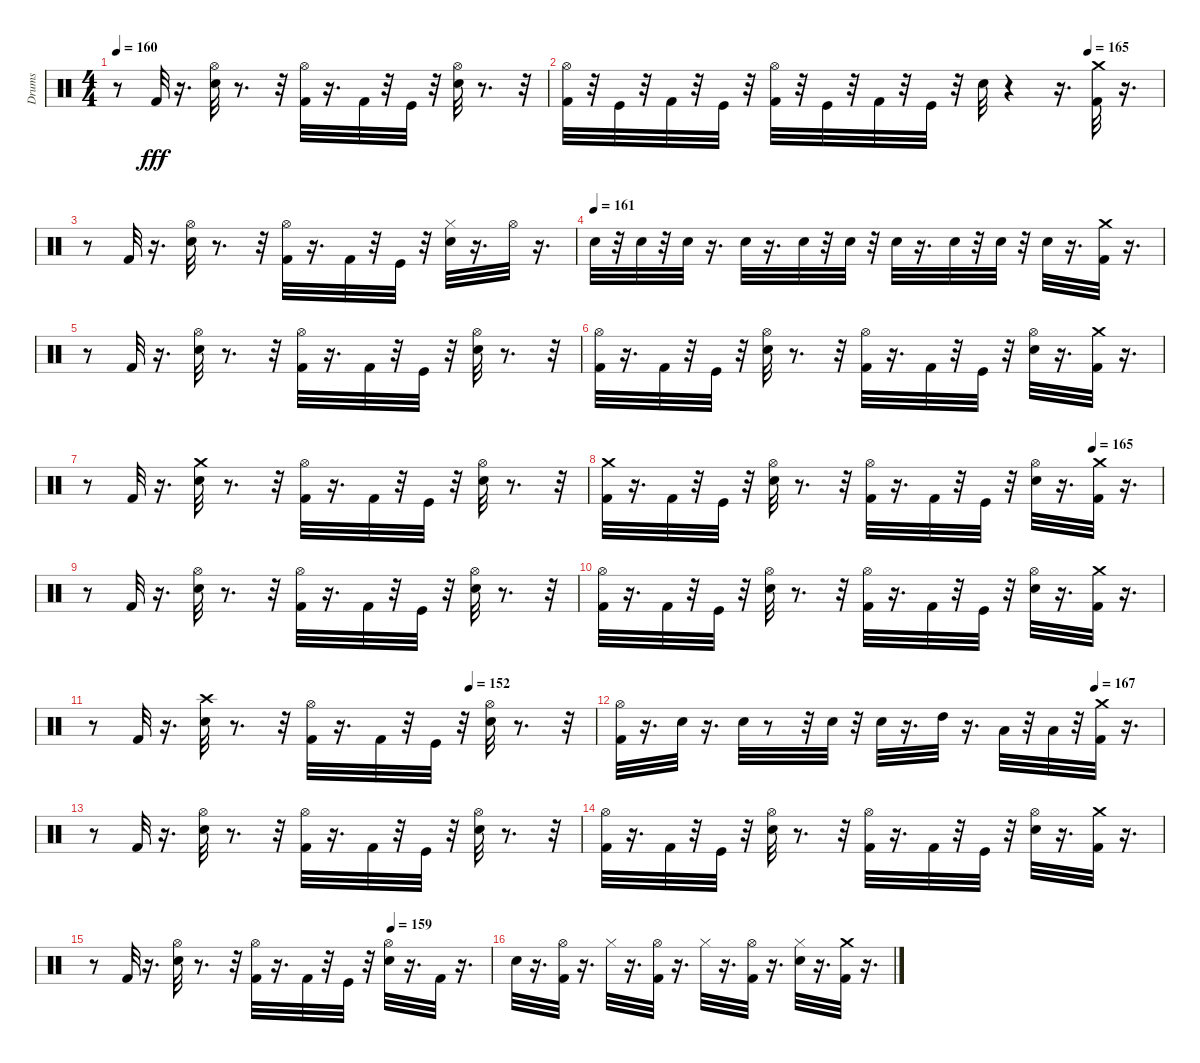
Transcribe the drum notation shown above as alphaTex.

\track ("Drums" "Drums") {instrument percussion}
\staff {score}
\articulation defaults
\ts (4 4)
\tempo 160
\clef neutral
\ks c
r.8{dy fff} "Kick (hit) 2".32 r.16{d} ("Snare (hit) 2" "Hi-Hat (open)").32 r.8{d} r.32 ("Kick (hit) 2" "Hi-Hat (open)").32 r.16{d} "Kick (hit) 2".32 r.32 "Kick (hit)".32 r.32 ("Snare (hit) 2" "Hi-Hat (open)").32 r.8{d} r.32 |
\tempo (165 0.875)
("Kick (hit) 2" "Hi-Hat (open)").32 r.32 "Kick (hit)".32 r.32 "Kick (hit) 2".32 r.32 "Kick (hit)".32 r.32 ("Kick (hit) 2" "Hi-Hat (open)").32 r.32 "Kick (hit)".32 r.32 "Kick (hit) 2".32 r.32 "Kick (hit)".32 r.32 "Snare (hit) 2".32 r.4 r.16{d} ("Crash medium (hit)" "Kick (hit) 2").32 r.16{d} |
r.8 "Kick (hit) 2".32 r.16{d} ("Snare (hit) 2" "Hi-Hat (open)").32 r.8{d} r.32 ("Kick (hit) 2" "Hi-Hat (open)").32 r.16{d} "Kick (hit) 2".32 r.32 "Kick (hit)".32 r.32 ("Snare (hit) 2" "Hi-Hat (closed)").32 r.16{d} "Hi-Hat (open)".32 r.16{d} |
\tempo (161)
"Snare (hit) 2".32 r.32 "Snare (hit) 2".32 r.32 "Snare (hit) 2".32 r.16{d} "Snare (hit) 2".32 r.16{d} "Snare (hit) 2".32 r.32 "Snare (hit) 2".32 r.32 "Snare (hit) 2".32 r.16{d} "Snare (hit) 2".32 r.32 "Snare (hit) 2".32 r.32 "Snare (hit) 2".32 r.16{d} ("Crash medium (hit)" "Kick (hit) 2").32 r.16{d} |
r.8 "Kick (hit) 2".32 r.16{d} ("Snare (hit) 2" "Hi-Hat (open)").32 r.8{d} r.32 ("Kick (hit) 2" "Hi-Hat (open)").32 r.16{d} "Kick (hit) 2".32 r.32 "Kick (hit)".32 r.32 ("Snare (hit) 2" "Hi-Hat (open)").32 r.8{d} r.32 |
("Kick (hit) 2" "Hi-Hat (open)").32 r.16{d} "Kick (hit) 2".32 r.32 "Kick (hit)".32 r.32 ("Snare (hit) 2" "Hi-Hat (open)").32 r.8{d} r.32 ("Kick (hit) 2" "Hi-Hat (open)").32 r.16{d} "Kick (hit) 2".32 r.32 "Kick (hit)".32 r.32 ("Snare (hit) 2" "Hi-Hat (open)").32 r.16{d} ("Kick (hit) 2" "Crash medium (hit)").32 r.16{d} |
r.8 "Kick (hit) 2".32 r.16{d} ("Snare (hit) 2" "Crash medium (hit)").32 r.8{d} r.32 ("Kick (hit) 2" "Hi-Hat (open)").32 r.16{d} "Kick (hit) 2".32 r.32 "Kick (hit)".32 r.32 ("Snare (hit) 2" "Hi-Hat (open)").32 r.8{d} r.32 |
\tempo (165 0.875)
("Kick (hit) 2" "Crash medium (hit)").32 r.16{d} "Kick (hit) 2".32 r.32 "Kick (hit)".32 r.32 ("Snare (hit) 2" "Hi-Hat (open)").32 r.8{d} r.32 ("Kick (hit) 2" "Hi-Hat (open)").32 r.16{d} "Kick (hit) 2".32 r.32 "Kick (hit)".32 r.32 ("Snare (hit) 2" "Hi-Hat (open)").32 r.16{d} ("Kick (hit) 2" "Crash medium (hit)").32 r.16{d} |
r.8 "Kick (hit) 2".32 r.16{d} ("Snare (hit) 2" "Hi-Hat (open)").32 r.8{d} r.32 ("Kick (hit) 2" "Hi-Hat (open)").32 r.16{d} "Kick (hit) 2".32 r.32 "Kick (hit)".32 r.32 ("Snare (hit) 2" "Hi-Hat (open)").32 r.8{d} r.32 |
("Kick (hit) 2" "Hi-Hat (open)").32 r.16{d} "Kick (hit) 2".32 r.32 "Kick (hit)".32 r.32 ("Snare (hit) 2" "Hi-Hat (open)").32 r.8{d} r.32 ("Kick (hit) 2" "Hi-Hat (open)").32 r.16{d} "Kick (hit) 2".32 r.32 "Kick (hit)".32 r.32 ("Snare (hit) 2" "Hi-Hat (open)").32 r.16{d} ("Kick (hit) 2" "Crash medium (hit)").32 r.16{d} |
\tempo (152 0.75)
r.8 "Kick (hit) 2".32 r.16{d} ("Snare (hit) 2" "Crash high (hit)").32 r.8{d} r.32 ("Kick (hit) 2" "Hi-Hat (open)").32 r.16{d} "Kick (hit) 2".32 r.32 "Kick (hit)".32 r.32 ("Snare (hit) 2" "Hi-Hat (open)").32 r.8{d} r.32 |
\tempo (167 0.875)
("Kick (hit) 2" "Hi-Hat (open)").32 r.16{d} "Snare (hit) 2".32 r.16{d} "Snare (hit) 2".32 r.8 r.32 "Snare (hit) 2".32 r.32 "Snare (hit) 2".32 r.16{d} "High Tom (hit)".32 r.16{d} "Low Tom (hit)".32 r.32 "Low Tom (hit)".32 r.32 ("Crash medium (hit)" "Kick (hit) 2").32 r.16{d} |
r.8 "Kick (hit) 2".32 r.16{d} ("Snare (hit) 2" "Hi-Hat (open)").32 r.8{d} r.32 ("Kick (hit) 2" "Hi-Hat (open)").32 r.16{d} "Kick (hit) 2".32 r.32 "Kick (hit)".32 r.32 ("Snare (hit) 2" "Hi-Hat (open)").32 r.8{d} r.32 |
("Kick (hit) 2" "Hi-Hat (open)").32 r.16{d} "Kick (hit) 2".32 r.32 "Kick (hit)".32 r.32 ("Snare (hit) 2" "Hi-Hat (open)").32 r.8{d} r.32 ("Kick (hit) 2" "Hi-Hat (open)").32 r.16{d} "Kick (hit) 2".32 r.32 "Kick (hit)".32 r.32 ("Snare (hit) 2" "Hi-Hat (open)").32 r.16{d} ("Kick (hit) 2" "Crash medium (hit)").32 r.16{d} |
\tempo (159 0.75)
r.8 "Kick (hit) 2".32 r.16{d} ("Snare (hit) 2" "Hi-Hat (open)").32 r.8{d} r.32 ("Kick (hit) 2" "Hi-Hat (open)").32 r.16{d} "Kick (hit) 2".32 r.32 "Kick (hit)".32 r.32 ("Snare (hit) 2" "Hi-Hat (open)").32 r.16{d} "Kick (hit) 2".32 r.16{d} |
"Snare (hit) 2".32 r.16{d} ("Kick (hit) 2" "Hi-Hat (open)").32 r.16{d} "Hi-Hat (closed)".32 r.16{d} ("Kick (hit) 2" "Hi-Hat (open)").32 r.16{d} "Hi-Hat (closed)".32 r.16{d} ("Kick (hit) 2" "Hi-Hat (open)").32 r.16{d} ("Snare (hit) 2" "Hi-Hat (closed)").32 r.16{d} ("Kick (hit) 2" "Crash medium (hit)").32 r.16{d}
